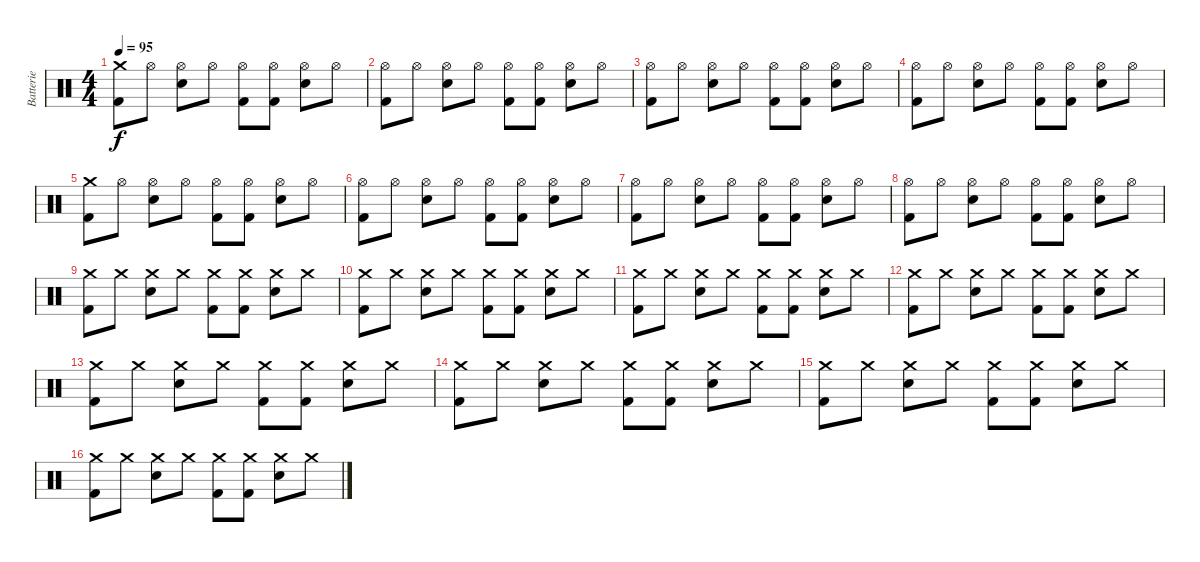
\track ("Batterie" "Batterie") {instrument percussion}
\staff {score}
\articulation defaults
\ts (4 4)
\tempo 95
\clef neutral
\ks c
("Crash medium (hit)" "Kick (hit) 2").8{dy f} "Hi-Hat (open)".8 ("Hi-Hat (open)" "Electric Snare (hit)").8 "Hi-Hat (open)".8 ("Hi-Hat (open)" "Kick (hit) 2").8 ("Hi-Hat (open)" "Kick (hit) 2").8 ("Hi-Hat (open)" "Electric Snare (hit)").8 "Hi-Hat (open)".8 |
("Hi-Hat (open)" "Kick (hit) 2").8 "Hi-Hat (open)".8 ("Hi-Hat (open)" "Electric Snare (hit)").8 "Hi-Hat (open)".8 ("Hi-Hat (open)" "Kick (hit) 2").8 ("Hi-Hat (open)" "Kick (hit) 2").8 ("Hi-Hat (open)" "Electric Snare (hit)").8 "Hi-Hat (open)".8 |
("Hi-Hat (open)" "Kick (hit) 2").8 "Hi-Hat (open)".8 ("Hi-Hat (open)" "Electric Snare (hit)").8 "Hi-Hat (open)".8 ("Hi-Hat (open)" "Kick (hit) 2").8 ("Hi-Hat (open)" "Kick (hit) 2").8 ("Hi-Hat (open)" "Electric Snare (hit)").8 "Hi-Hat (open)".8 |
("Hi-Hat (open)" "Kick (hit) 2").8 "Hi-Hat (open)".8 ("Hi-Hat (open)" "Electric Snare (hit)").8 "Hi-Hat (open)".8 ("Hi-Hat (open)" "Kick (hit) 2").8 ("Hi-Hat (open)" "Kick (hit) 2").8 ("Hi-Hat (open)" "Electric Snare (hit)").8 "Hi-Hat (open)".8 |
("Crash medium (hit)" "Kick (hit) 2").8 "Hi-Hat (open)".8 ("Hi-Hat (open)" "Electric Snare (hit)").8 "Hi-Hat (open)".8 ("Hi-Hat (open)" "Kick (hit) 2").8 ("Hi-Hat (open)" "Kick (hit) 2").8 ("Hi-Hat (open)" "Electric Snare (hit)").8 "Hi-Hat (open)".8 |
("Hi-Hat (open)" "Kick (hit) 2").8 "Hi-Hat (open)".8 ("Hi-Hat (open)" "Electric Snare (hit)").8 "Hi-Hat (open)".8 ("Hi-Hat (open)" "Kick (hit) 2").8 ("Hi-Hat (open)" "Kick (hit) 2").8 ("Hi-Hat (open)" "Electric Snare (hit)").8 "Hi-Hat (open)".8 |
("Hi-Hat (open)" "Kick (hit) 2").8 "Hi-Hat (open)".8 ("Hi-Hat (open)" "Electric Snare (hit)").8 "Hi-Hat (open)".8 ("Hi-Hat (open)" "Kick (hit) 2").8 ("Hi-Hat (open)" "Kick (hit) 2").8 ("Hi-Hat (open)" "Electric Snare (hit)").8 "Hi-Hat (open)".8 |
("Hi-Hat (open)" "Kick (hit) 2").8 "Hi-Hat (open)".8 ("Hi-Hat (open)" "Electric Snare (hit)").8 "Hi-Hat (open)".8 ("Hi-Hat (open)" "Kick (hit) 2").8 ("Hi-Hat (open)" "Kick (hit) 2").8 ("Hi-Hat (open)" "Electric Snare (hit)").8 "Hi-Hat (open)".8 |
("Crash medium (hit)" "Kick (hit) 2").8 "Crash medium (hit)".8 ("Crash medium (hit)" "Electric Snare (hit)").8 "Crash medium (hit)".8 ("Crash medium (hit)" "Kick (hit) 2").8 ("Crash medium (hit)" "Kick (hit) 2").8 ("Crash medium (hit)" "Electric Snare (hit)").8 "Crash medium (hit)".8 |
("Crash medium (hit)" "Kick (hit) 2").8 "Crash medium (hit)".8 ("Crash medium (hit)" "Electric Snare (hit)").8 "Crash medium (hit)".8 ("Crash medium (hit)" "Kick (hit) 2").8 ("Crash medium (hit)" "Kick (hit) 2").8 ("Crash medium (hit)" "Electric Snare (hit)").8 "Crash medium (hit)".8 |
("Crash medium (hit)" "Kick (hit) 2").8 "Crash medium (hit)".8 ("Crash medium (hit)" "Electric Snare (hit)").8 "Crash medium (hit)".8 ("Crash medium (hit)" "Kick (hit) 2").8 ("Crash medium (hit)" "Kick (hit) 2").8 ("Crash medium (hit)" "Electric Snare (hit)").8 "Crash medium (hit)".8 |
("Crash medium (hit)" "Kick (hit) 2").8 "Crash medium (hit)".8 ("Crash medium (hit)" "Electric Snare (hit)").8 "Crash medium (hit)".8 ("Crash medium (hit)" "Kick (hit) 2").8 ("Crash medium (hit)" "Kick (hit) 2").8 ("Crash medium (hit)" "Electric Snare (hit)").8 "Crash medium (hit)".8 |
("Crash medium (hit)" "Kick (hit) 2").8 "Crash medium (hit)".8 ("Crash medium (hit)" "Electric Snare (hit)").8 "Crash medium (hit)".8 ("Crash medium (hit)" "Kick (hit) 2").8 ("Crash medium (hit)" "Kick (hit) 2").8 ("Crash medium (hit)" "Electric Snare (hit)").8 "Crash medium (hit)".8 |
("Crash medium (hit)" "Kick (hit) 2").8 "Crash medium (hit)".8 ("Crash medium (hit)" "Electric Snare (hit)").8 "Crash medium (hit)".8 ("Crash medium (hit)" "Kick (hit) 2").8 ("Crash medium (hit)" "Kick (hit) 2").8 ("Crash medium (hit)" "Electric Snare (hit)").8 "Crash medium (hit)".8 |
("Crash medium (hit)" "Kick (hit) 2").8 "Crash medium (hit)".8 ("Crash medium (hit)" "Electric Snare (hit)").8 "Crash medium (hit)".8 ("Crash medium (hit)" "Kick (hit) 2").8 ("Crash medium (hit)" "Kick (hit) 2").8 ("Crash medium (hit)" "Electric Snare (hit)").8 "Crash medium (hit)".8 |
("Crash medium (hit)" "Kick (hit) 2").8 "Crash medium (hit)".8 ("Crash medium (hit)" "Electric Snare (hit)").8 "Crash medium (hit)".8 ("Crash medium (hit)" "Kick (hit) 2").8 ("Crash medium (hit)" "Kick (hit) 2").8 ("Crash medium (hit)" "Electric Snare (hit)").8 "Crash medium (hit)".8
